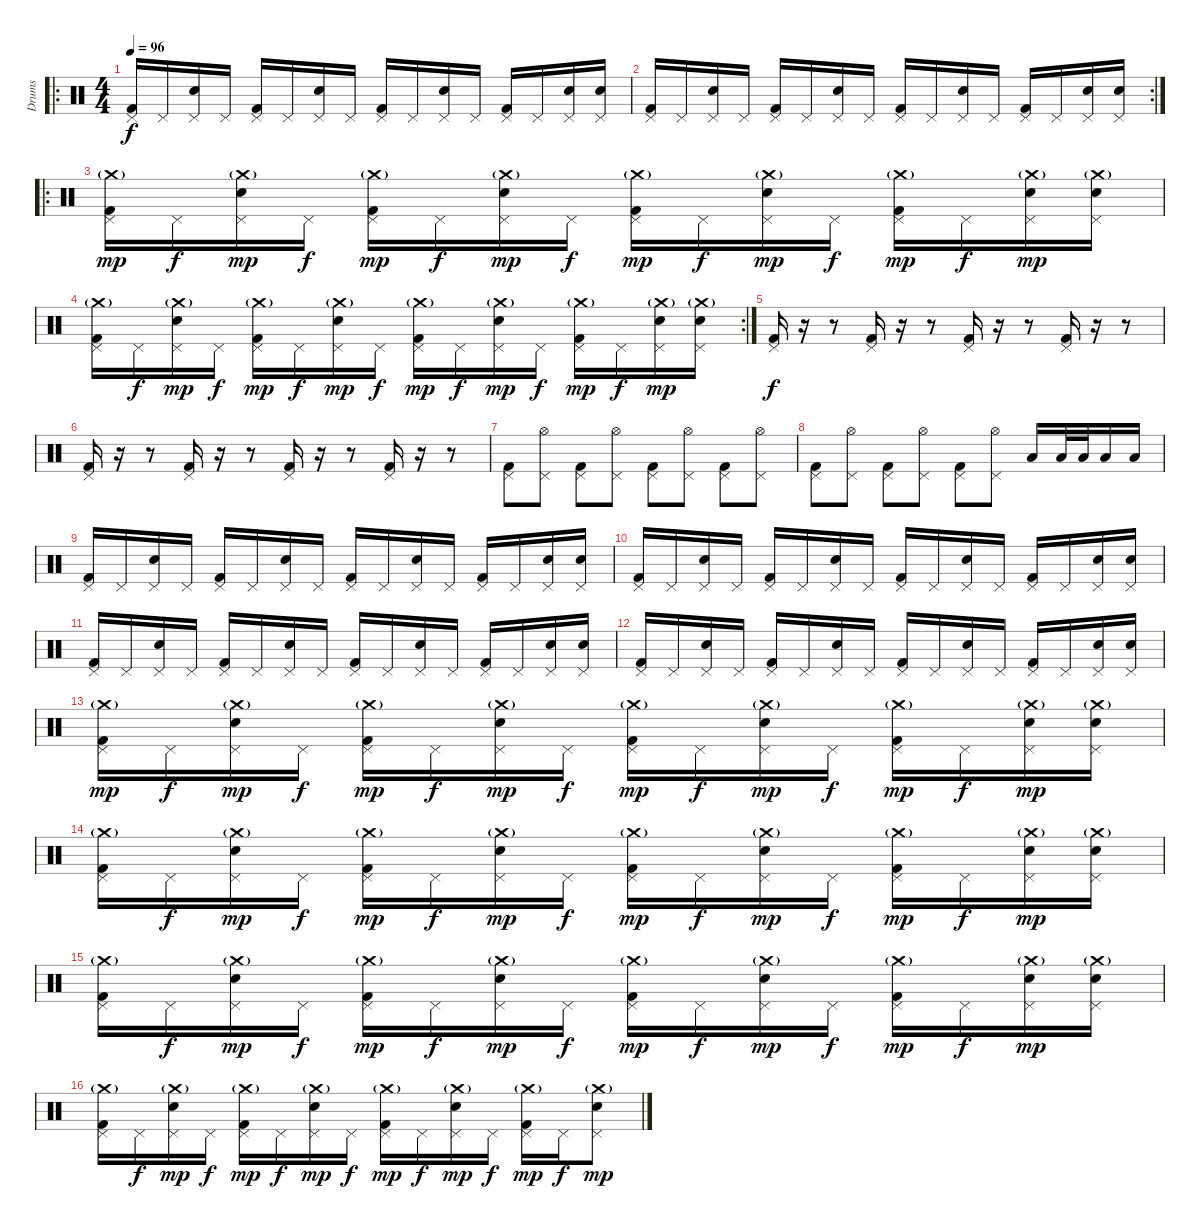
\track ("Drums" "Drums") {instrument percussion}
\staff
\articulation defaults
\ro
\ts (4 4)
\tempo 96
\clef neutral
\ks c
("Pedal Hi-Hat (hit)" "Kick (hit) 2").16{dy f} "Pedal Hi-Hat (hit)".16 ("Pedal Hi-Hat (hit)" "Snare (hit) 2").16 "Pedal Hi-Hat (hit)".16 ("Pedal Hi-Hat (hit)" "Kick (hit) 2").16 "Pedal Hi-Hat (hit)".16 ("Pedal Hi-Hat (hit)" "Snare (hit) 2").16 "Pedal Hi-Hat (hit)".16 ("Pedal Hi-Hat (hit)" "Kick (hit) 2").16 "Pedal Hi-Hat (hit)".16 ("Pedal Hi-Hat (hit)" "Snare (hit) 2").16 "Pedal Hi-Hat (hit)".16 ("Pedal Hi-Hat (hit)" "Kick (hit) 2").16 "Pedal Hi-Hat (hit)".16 ("Pedal Hi-Hat (hit)" "Snare (hit) 2").16 ("Pedal Hi-Hat (hit)" "Snare (hit) 2").16 |
\rc 2
("Pedal Hi-Hat (hit)" "Kick (hit) 2").16 "Pedal Hi-Hat (hit)".16 ("Pedal Hi-Hat (hit)" "Snare (hit) 2").16 "Pedal Hi-Hat (hit)".16 ("Pedal Hi-Hat (hit)" "Kick (hit) 2").16 "Pedal Hi-Hat (hit)".16 ("Pedal Hi-Hat (hit)" "Snare (hit) 2").16 "Pedal Hi-Hat (hit)".16 ("Pedal Hi-Hat (hit)" "Kick (hit) 2").16 "Pedal Hi-Hat (hit)".16 ("Pedal Hi-Hat (hit)" "Snare (hit) 2").16 "Pedal Hi-Hat (hit)".16 ("Pedal Hi-Hat (hit)" "Kick (hit) 2").16 "Pedal Hi-Hat (hit)".16 ("Pedal Hi-Hat (hit)" "Snare (hit) 2").16 ("Pedal Hi-Hat (hit)" "Snare (hit) 2").16 |
\ro
("Crash medium (hit)"{g} "Pedal Hi-Hat (hit)" "Kick (hit) 2").16{dy mp} "Pedal Hi-Hat (hit)".16{dy f} ("Crash medium (hit)"{g} "Pedal Hi-Hat (hit)" "Snare (hit) 2").16{dy mp} "Pedal Hi-Hat (hit)".16{dy f} ("Crash medium (hit)"{g} "Pedal Hi-Hat (hit)" "Kick (hit) 2").16{dy mp} "Pedal Hi-Hat (hit)".16{dy f} ("Crash medium (hit)"{g} "Pedal Hi-Hat (hit)" "Snare (hit) 2").16{dy mp} "Pedal Hi-Hat (hit)".16{dy f} ("Crash medium (hit)"{g} "Pedal Hi-Hat (hit)" "Kick (hit) 2").16{dy mp} "Pedal Hi-Hat (hit)".16{dy f} ("Crash medium (hit)"{g} "Pedal Hi-Hat (hit)" "Snare (hit) 2").16{dy mp} "Pedal Hi-Hat (hit)".16{dy f} ("Crash medium (hit)"{g} "Pedal Hi-Hat (hit)" "Kick (hit) 2").16{dy mp} "Pedal Hi-Hat (hit)".16{dy f} ("Crash medium (hit)"{g} "Pedal Hi-Hat (hit)" "Snare (hit) 2").16{dy mp} ("Crash medium (hit)"{g} "Pedal Hi-Hat (hit)" "Snare (hit) 2").16 |
\rc 2
("Crash medium (hit)"{g} "Pedal Hi-Hat (hit)" "Kick (hit) 2").16 "Pedal Hi-Hat (hit)".16{dy f} ("Crash medium (hit)"{g} "Pedal Hi-Hat (hit)" "Snare (hit) 2").16{dy mp} "Pedal Hi-Hat (hit)".16{dy f} ("Crash medium (hit)"{g} "Pedal Hi-Hat (hit)" "Kick (hit) 2").16{dy mp} "Pedal Hi-Hat (hit)".16{dy f} ("Crash medium (hit)"{g} "Pedal Hi-Hat (hit)" "Snare (hit) 2").16{dy mp} "Pedal Hi-Hat (hit)".16{dy f} ("Crash medium (hit)"{g} "Pedal Hi-Hat (hit)" "Kick (hit) 2").16{dy mp} "Pedal Hi-Hat (hit)".16{dy f} ("Crash medium (hit)"{g} "Pedal Hi-Hat (hit)" "Snare (hit) 2").16{dy mp} "Pedal Hi-Hat (hit)".16{dy f} ("Crash medium (hit)"{g} "Pedal Hi-Hat (hit)" "Kick (hit) 2").16{dy mp} "Pedal Hi-Hat (hit)".16{dy f} ("Crash medium (hit)"{g} "Pedal Hi-Hat (hit)" "Snare (hit) 2").16{dy mp} ("Crash medium (hit)"{g} "Pedal Hi-Hat (hit)" "Snare (hit) 2").16 |
("Pedal Hi-Hat (hit)" "Kick (hit) 2").16{dy f} r.16 r.8 ("Pedal Hi-Hat (hit)" "Kick (hit) 2").16 r.16 r.8 ("Pedal Hi-Hat (hit)" "Kick (hit) 2").16 r.16 r.8 ("Pedal Hi-Hat (hit)" "Kick (hit) 2").16 r.16 r.8 |
("Pedal Hi-Hat (hit)" "Kick (hit) 2").16 r.16 r.8 ("Pedal Hi-Hat (hit)" "Kick (hit) 2").16 r.16 r.8 ("Pedal Hi-Hat (hit)" "Kick (hit) 2").16 r.16 r.8 ("Pedal Hi-Hat (hit)" "Kick (hit) 2").16 r.16 r.8 |
("Pedal Hi-Hat (hit)" "Kick (hit) 2").8 ("Pedal Hi-Hat (hit)" "Hi-Hat (open)").8 ("Pedal Hi-Hat (hit)" "Kick (hit) 2").8 ("Pedal Hi-Hat (hit)" "Hi-Hat (open)").8 ("Pedal Hi-Hat (hit)" "Kick (hit) 2").8 ("Pedal Hi-Hat (hit)" "Hi-Hat (open)").8 ("Pedal Hi-Hat (hit)" "Kick (hit) 2").8 ("Pedal Hi-Hat (hit)" "Hi-Hat (open)").8 |
("Pedal Hi-Hat (hit)" "Kick (hit) 2").8 ("Pedal Hi-Hat (hit)" "Hi-Hat (open)").8 ("Pedal Hi-Hat (hit)" "Kick (hit) 2").8 ("Pedal Hi-Hat (hit)" "Hi-Hat (open)").8 ("Pedal Hi-Hat (hit)" "Kick (hit) 2").8 ("Pedal Hi-Hat (hit)" "Hi-Hat (open)").8 "Low Tom (hit)".16 "Low Tom (hit)".32 "Low Tom (hit)".32 "Low Tom (hit)".16 "Low Tom (hit)".16 |
("Pedal Hi-Hat (hit)" "Kick (hit) 2").16 "Pedal Hi-Hat (hit)".16 ("Pedal Hi-Hat (hit)" "Snare (hit) 2").16 "Pedal Hi-Hat (hit)".16 ("Pedal Hi-Hat (hit)" "Kick (hit) 2").16 "Pedal Hi-Hat (hit)".16 ("Pedal Hi-Hat (hit)" "Snare (hit) 2").16 "Pedal Hi-Hat (hit)".16 ("Pedal Hi-Hat (hit)" "Kick (hit) 2").16 "Pedal Hi-Hat (hit)".16 ("Pedal Hi-Hat (hit)" "Snare (hit) 2").16 "Pedal Hi-Hat (hit)".16 ("Pedal Hi-Hat (hit)" "Kick (hit) 2").16 "Pedal Hi-Hat (hit)".16 ("Pedal Hi-Hat (hit)" "Snare (hit) 2").16 ("Pedal Hi-Hat (hit)" "Snare (hit) 2").16 |
("Pedal Hi-Hat (hit)" "Kick (hit) 2").16 "Pedal Hi-Hat (hit)".16 ("Pedal Hi-Hat (hit)" "Snare (hit) 2").16 "Pedal Hi-Hat (hit)".16 ("Pedal Hi-Hat (hit)" "Kick (hit) 2").16 "Pedal Hi-Hat (hit)".16 ("Pedal Hi-Hat (hit)" "Snare (hit) 2").16 "Pedal Hi-Hat (hit)".16 ("Pedal Hi-Hat (hit)" "Kick (hit) 2").16 "Pedal Hi-Hat (hit)".16 ("Pedal Hi-Hat (hit)" "Snare (hit) 2").16 "Pedal Hi-Hat (hit)".16 ("Pedal Hi-Hat (hit)" "Kick (hit) 2").16 "Pedal Hi-Hat (hit)".16 ("Pedal Hi-Hat (hit)" "Snare (hit) 2").16 ("Pedal Hi-Hat (hit)" "Snare (hit) 2").16 |
("Pedal Hi-Hat (hit)" "Kick (hit) 2").16 "Pedal Hi-Hat (hit)".16 ("Pedal Hi-Hat (hit)" "Snare (hit) 2").16 "Pedal Hi-Hat (hit)".16 ("Pedal Hi-Hat (hit)" "Kick (hit) 2").16 "Pedal Hi-Hat (hit)".16 ("Pedal Hi-Hat (hit)" "Snare (hit) 2").16 "Pedal Hi-Hat (hit)".16 ("Pedal Hi-Hat (hit)" "Kick (hit) 2").16 "Pedal Hi-Hat (hit)".16 ("Pedal Hi-Hat (hit)" "Snare (hit) 2").16 "Pedal Hi-Hat (hit)".16 ("Pedal Hi-Hat (hit)" "Kick (hit) 2").16 "Pedal Hi-Hat (hit)".16 ("Pedal Hi-Hat (hit)" "Snare (hit) 2").16 ("Pedal Hi-Hat (hit)" "Snare (hit) 2").16 |
("Pedal Hi-Hat (hit)" "Kick (hit) 2").16 "Pedal Hi-Hat (hit)".16 ("Pedal Hi-Hat (hit)" "Snare (hit) 2").16 "Pedal Hi-Hat (hit)".16 ("Pedal Hi-Hat (hit)" "Kick (hit) 2").16 "Pedal Hi-Hat (hit)".16 ("Pedal Hi-Hat (hit)" "Snare (hit) 2").16 "Pedal Hi-Hat (hit)".16 ("Pedal Hi-Hat (hit)" "Kick (hit) 2").16 "Pedal Hi-Hat (hit)".16 ("Pedal Hi-Hat (hit)" "Snare (hit) 2").16 "Pedal Hi-Hat (hit)".16 ("Pedal Hi-Hat (hit)" "Kick (hit) 2").16 "Pedal Hi-Hat (hit)".16 ("Pedal Hi-Hat (hit)" "Snare (hit) 2").16 ("Pedal Hi-Hat (hit)" "Snare (hit) 2").16 |
("Crash medium (hit)"{g} "Pedal Hi-Hat (hit)" "Kick (hit) 2").16{dy mp} "Pedal Hi-Hat (hit)".16{dy f} ("Crash medium (hit)"{g} "Pedal Hi-Hat (hit)" "Snare (hit) 2").16{dy mp} "Pedal Hi-Hat (hit)".16{dy f} ("Crash medium (hit)"{g} "Pedal Hi-Hat (hit)" "Kick (hit) 2").16{dy mp} "Pedal Hi-Hat (hit)".16{dy f} ("Crash medium (hit)"{g} "Pedal Hi-Hat (hit)" "Snare (hit) 2").16{dy mp} "Pedal Hi-Hat (hit)".16{dy f} ("Crash medium (hit)"{g} "Pedal Hi-Hat (hit)" "Kick (hit) 2").16{dy mp} "Pedal Hi-Hat (hit)".16{dy f} ("Crash medium (hit)"{g} "Pedal Hi-Hat (hit)" "Snare (hit) 2").16{dy mp} "Pedal Hi-Hat (hit)".16{dy f} ("Crash medium (hit)"{g} "Pedal Hi-Hat (hit)" "Kick (hit) 2").16{dy mp} "Pedal Hi-Hat (hit)".16{dy f} ("Crash medium (hit)"{g} "Pedal Hi-Hat (hit)" "Snare (hit) 2").16{dy mp} ("Crash medium (hit)"{g} "Pedal Hi-Hat (hit)" "Snare (hit) 2").16 |
("Crash medium (hit)"{g} "Pedal Hi-Hat (hit)" "Kick (hit) 2").16 "Pedal Hi-Hat (hit)".16{dy f} ("Crash medium (hit)"{g} "Pedal Hi-Hat (hit)" "Snare (hit) 2").16{dy mp} "Pedal Hi-Hat (hit)".16{dy f} ("Crash medium (hit)"{g} "Pedal Hi-Hat (hit)" "Kick (hit) 2").16{dy mp} "Pedal Hi-Hat (hit)".16{dy f} ("Crash medium (hit)"{g} "Pedal Hi-Hat (hit)" "Snare (hit) 2").16{dy mp} "Pedal Hi-Hat (hit)".16{dy f} ("Crash medium (hit)"{g} "Pedal Hi-Hat (hit)" "Kick (hit) 2").16{dy mp} "Pedal Hi-Hat (hit)".16{dy f} ("Crash medium (hit)"{g} "Pedal Hi-Hat (hit)" "Snare (hit) 2").16{dy mp} "Pedal Hi-Hat (hit)".16{dy f} ("Crash medium (hit)"{g} "Pedal Hi-Hat (hit)" "Kick (hit) 2").16{dy mp} "Pedal Hi-Hat (hit)".16{dy f} ("Crash medium (hit)"{g} "Pedal Hi-Hat (hit)" "Snare (hit) 2").16{dy mp} ("Crash medium (hit)"{g} "Pedal Hi-Hat (hit)" "Snare (hit) 2").16 |
("Crash medium (hit)"{g} "Pedal Hi-Hat (hit)" "Kick (hit) 2").16 "Pedal Hi-Hat (hit)".16{dy f} ("Crash medium (hit)"{g} "Pedal Hi-Hat (hit)" "Snare (hit) 2").16{dy mp} "Pedal Hi-Hat (hit)".16{dy f} ("Crash medium (hit)"{g} "Pedal Hi-Hat (hit)" "Kick (hit) 2").16{dy mp} "Pedal Hi-Hat (hit)".16{dy f} ("Crash medium (hit)"{g} "Pedal Hi-Hat (hit)" "Snare (hit) 2").16{dy mp} "Pedal Hi-Hat (hit)".16{dy f} ("Crash medium (hit)"{g} "Pedal Hi-Hat (hit)" "Kick (hit) 2").16{dy mp} "Pedal Hi-Hat (hit)".16{dy f} ("Crash medium (hit)"{g} "Pedal Hi-Hat (hit)" "Snare (hit) 2").16{dy mp} "Pedal Hi-Hat (hit)".16{dy f} ("Crash medium (hit)"{g} "Pedal Hi-Hat (hit)" "Kick (hit) 2").16{dy mp} "Pedal Hi-Hat (hit)".16{dy f} ("Crash medium (hit)"{g} "Pedal Hi-Hat (hit)" "Snare (hit) 2").16{dy mp} ("Crash medium (hit)"{g} "Pedal Hi-Hat (hit)" "Snare (hit) 2").16 |
("Crash medium (hit)"{g} "Pedal Hi-Hat (hit)" "Kick (hit) 2").16 "Pedal Hi-Hat (hit)".16{dy f} ("Crash medium (hit)"{g} "Pedal Hi-Hat (hit)" "Snare (hit) 2").16{dy mp} "Pedal Hi-Hat (hit)".16{dy f} ("Crash medium (hit)"{g} "Pedal Hi-Hat (hit)" "Kick (hit) 2").16{dy mp} "Pedal Hi-Hat (hit)".16{dy f} ("Crash medium (hit)"{g} "Pedal Hi-Hat (hit)" "Snare (hit) 2").16{dy mp} "Pedal Hi-Hat (hit)".16{dy f} ("Crash medium (hit)"{g} "Pedal Hi-Hat (hit)" "Kick (hit) 2").16{dy mp} "Pedal Hi-Hat (hit)".16{dy f} ("Crash medium (hit)"{g} "Pedal Hi-Hat (hit)" "Snare (hit) 2").16{dy mp} "Pedal Hi-Hat (hit)".16{dy f} ("Crash medium (hit)"{g} "Pedal Hi-Hat (hit)" "Kick (hit) 2").16{dy mp} "Pedal Hi-Hat (hit)".16{dy f} ("Crash medium (hit)"{g} "Pedal Hi-Hat (hit)" "Snare (hit) 2").8{dy mp}
